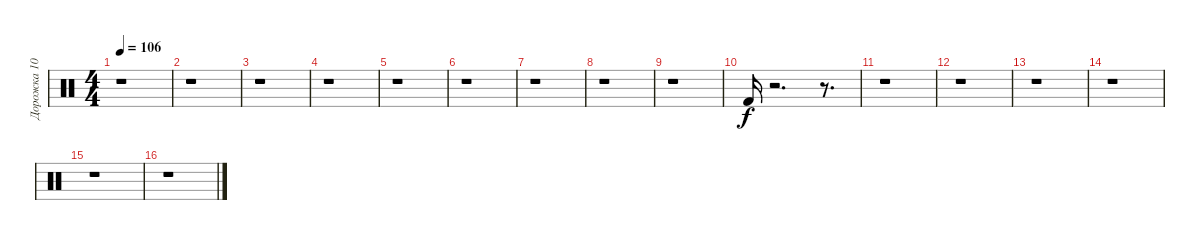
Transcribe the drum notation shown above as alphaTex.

\track ("Дорожка 10" "Дорожка 10") {instrument percussion}
\staff {score}
\articulation defaults
\ts (4 4)
\tempo 106
\clef neutral
\ks c
r.1{dy f} |
r.1 |
r.1 |
r.1 |
r.1 |
r.1 |
r.1 |
r.1 |
r.1 |
"Kick (hit) 2".16 r.2{d} r.8{d} |
r.1 |
r.1 |
r.1 |
r.1 |
r.1 |
r.1
